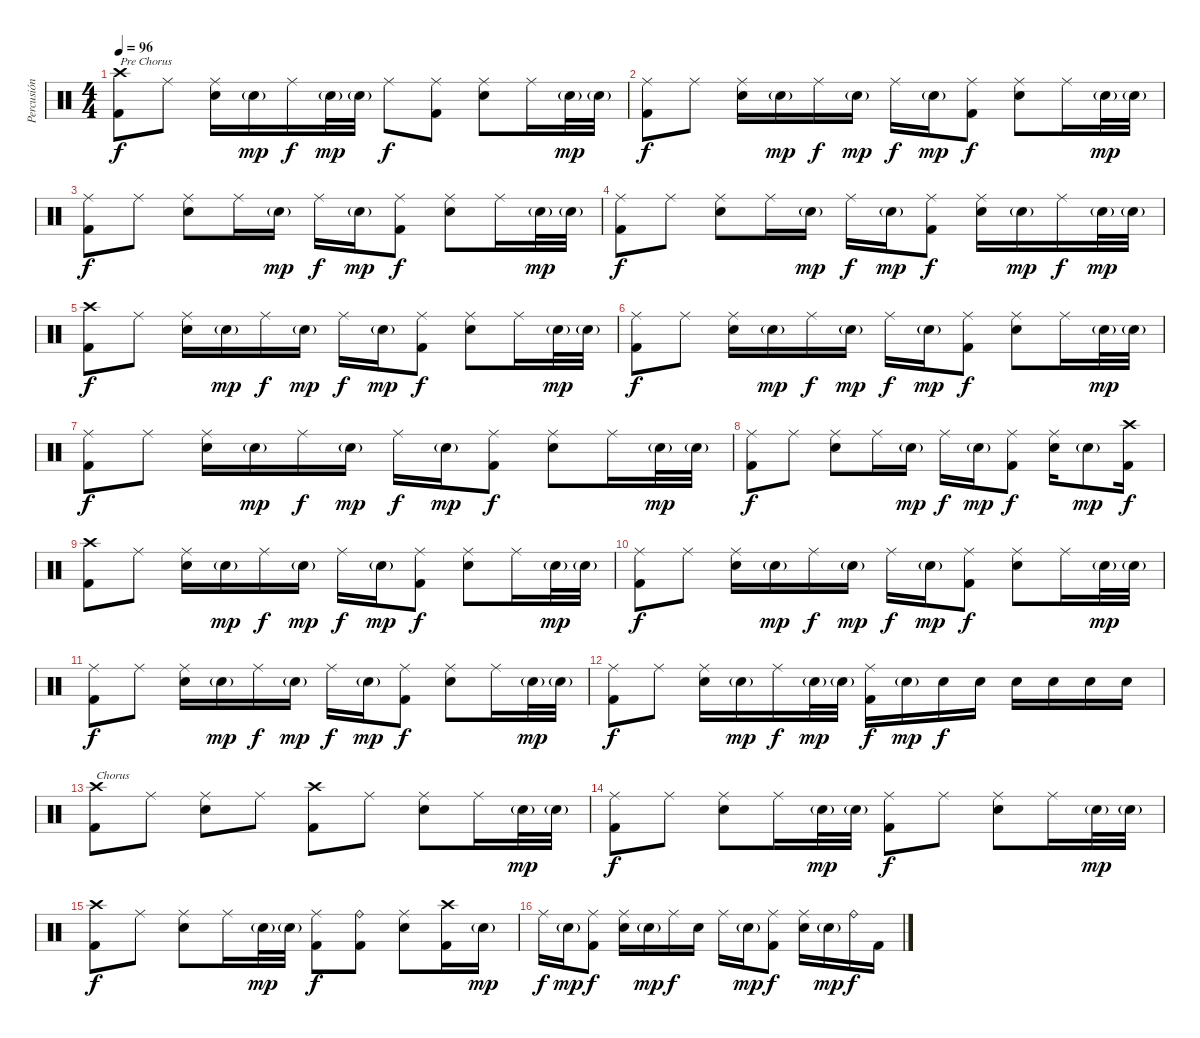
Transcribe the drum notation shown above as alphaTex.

\track ("Percusión" "Percusión") {instrument percussion}
\staff {score}
\articulation defaults
\ts (4 4)
\tempo 96
\clef neutral
\ks c
("Crash high (hit)" "Kick (hit) 2").8{txt "Pre Chorus" dy f} "Ride (middle)".8 ("Ride (middle)" "Snare (hit) 2").16 "Snare (hit) 2"{g}.16{dy mp} "Ride (middle)".16{dy f} "Snare (hit) 2"{g}.32{dy mp} "Snare (hit) 2"{g}.32 "Ride (middle)".8{dy f} ("Ride (middle)" "Kick (hit) 2").8 ("Ride (middle)" "Snare (hit) 2").8 "Ride (middle)".16 "Snare (hit) 2"{g}.32{dy mp} "Snare (hit) 2"{g}.32 |
("Ride (middle)" "Kick (hit) 2").8{dy f} "Ride (middle)".8 ("Ride (middle)" "Snare (hit) 2").16 "Snare (hit) 2"{g}.16{dy mp} "Ride (middle)".16{dy f} "Snare (hit) 2"{g}.16{dy mp} "Ride (middle)".16{dy f} "Snare (hit) 2"{g}.16{dy mp} ("Ride (middle)" "Kick (hit) 2").8{dy f} ("Ride (middle)" "Snare (hit) 2").8 "Ride (middle)".16 "Snare (hit) 2"{g}.32{dy mp} "Snare (hit) 2"{g}.32 |
("Ride (middle)" "Kick (hit) 2").8{dy f} "Ride (middle)".8 ("Ride (middle)" "Snare (hit) 2").8 "Ride (middle)".16 "Snare (hit) 2"{g}.16{dy mp} "Ride (middle)".16{dy f} "Snare (hit) 2"{g}.16{dy mp} ("Ride (middle)" "Kick (hit) 2").8{dy f} ("Ride (middle)" "Snare (hit) 2").8 "Ride (middle)".16 "Snare (hit) 2"{g}.32{dy mp} "Snare (hit) 2"{g}.32 |
("Ride (middle)" "Kick (hit) 2").8{dy f} "Ride (middle)".8 ("Ride (middle)" "Snare (hit) 2").8 "Ride (middle)".16 "Snare (hit) 2"{g}.16{dy mp} "Ride (middle)".16{dy f} "Snare (hit) 2"{g}.16{dy mp} ("Ride (middle)" "Kick (hit) 2").8{dy f} ("Ride (middle)" "Snare (hit) 2").16 "Snare (hit) 2"{g}.16{dy mp} "Ride (middle)".16{dy f} "Snare (hit) 2"{g}.32{dy mp} "Snare (hit) 2"{g}.32 |
("Crash high (hit)" "Kick (hit) 2").8{dy f} "Ride (middle)".8 ("Ride (middle)" "Snare (hit) 2").16 "Snare (hit) 2"{g}.16{dy mp} "Ride (middle)".16{dy f} "Snare (hit) 2"{g}.16{dy mp} "Ride (middle)".16{dy f} "Snare (hit) 2"{g}.16{dy mp} ("Ride (middle)" "Kick (hit) 2").8{dy f} ("Ride (middle)" "Snare (hit) 2").8 "Ride (middle)".16 "Snare (hit) 2"{g}.32{dy mp} "Snare (hit) 2"{g}.32 |
("Ride (middle)" "Kick (hit) 2").8{dy f} "Ride (middle)".8 ("Ride (middle)" "Snare (hit) 2").16 "Snare (hit) 2"{g}.16{dy mp} "Ride (middle)".16{dy f} "Snare (hit) 2"{g}.16{dy mp} "Ride (middle)".16{dy f} "Snare (hit) 2"{g}.16{dy mp} ("Ride (middle)" "Kick (hit) 2").8{dy f} ("Ride (middle)" "Snare (hit) 2").8 "Ride (middle)".16 "Snare (hit) 2"{g}.32{dy mp} "Snare (hit) 2"{g}.32 |
("Ride (middle)" "Kick (hit) 2").8{dy f} "Ride (middle)".8 ("Ride (middle)" "Snare (hit) 2").16 "Snare (hit) 2"{g}.16{dy mp} "Ride (middle)".16{dy f} "Snare (hit) 2"{g}.16{dy mp} "Ride (middle)".16{dy f} "Snare (hit) 2"{g}.16{dy mp} ("Ride (middle)" "Kick (hit) 2").8{dy f} ("Ride (middle)" "Snare (hit) 2").8 "Ride (middle)".16 "Snare (hit) 2"{g}.32{dy mp} "Snare (hit) 2"{g}.32 |
("Ride (middle)" "Kick (hit) 2").8{dy f} "Ride (middle)".8 ("Ride (middle)" "Snare (hit) 2").8 "Ride (middle)".16 "Snare (hit) 2"{g}.16{dy mp} "Ride (middle)".16{dy f} "Snare (hit) 2"{g}.16{dy mp} ("Ride (middle)" "Kick (hit) 2").8{dy f} ("Ride (middle)" "Snare (hit) 2").16 "Snare (hit) 2"{g}.8{dy mp} ("Crash high (hit)" "Kick (hit) 2").16{dy f} |
("Crash high (hit)" "Kick (hit) 2").8 "Ride (middle)".8 ("Ride (middle)" "Snare (hit) 2").16 "Snare (hit) 2"{g}.16{dy mp} "Ride (middle)".16{dy f} "Snare (hit) 2"{g}.16{dy mp} "Ride (middle)".16{dy f} "Snare (hit) 2"{g}.16{dy mp} ("Ride (middle)" "Kick (hit) 2").8{dy f} ("Ride (middle)" "Snare (hit) 2").8 "Ride (middle)".16 "Snare (hit) 2"{g}.32{dy mp} "Snare (hit) 2"{g}.32 |
("Ride (middle)" "Kick (hit) 2").8{dy f} "Ride (middle)".8 ("Ride (middle)" "Snare (hit) 2").16 "Snare (hit) 2"{g}.16{dy mp} "Ride (middle)".16{dy f} "Snare (hit) 2"{g}.16{dy mp} "Ride (middle)".16{dy f} "Snare (hit) 2"{g}.16{dy mp} ("Ride (middle)" "Kick (hit) 2").8{dy f} ("Ride (middle)" "Snare (hit) 2").8 "Ride (middle)".16 "Snare (hit) 2"{g}.32{dy mp} "Snare (hit) 2"{g}.32 |
("Ride (middle)" "Kick (hit) 2").8{dy f} "Ride (middle)".8 ("Ride (middle)" "Snare (hit) 2").16 "Snare (hit) 2"{g}.16{dy mp} "Ride (middle)".16{dy f} "Snare (hit) 2"{g}.16{dy mp} "Ride (middle)".16{dy f} "Snare (hit) 2"{g}.16{dy mp} ("Ride (middle)" "Kick (hit) 2").8{dy f} ("Ride (middle)" "Snare (hit) 2").8 "Ride (middle)".16 "Snare (hit) 2"{g}.32{dy mp} "Snare (hit) 2"{g}.32 |
("Ride (middle)" "Kick (hit) 2").8{dy f} "Ride (middle)".8 ("Ride (middle)" "Snare (hit) 2").16 "Snare (hit) 2"{g}.16{dy mp} "Ride (middle)".16{dy f} "Snare (hit) 2"{g}.32{dy mp} "Snare (hit) 2"{g}.32 ("Ride (middle)" "Kick (hit) 2").16{dy f} "Snare (hit) 2"{g}.16{dy mp} "Snare (hit) 2".16{dy f} "Snare (hit) 2".16 "Snare (hit) 2".16 "Snare (hit) 2".16 "Snare (hit) 2".16 "Snare (hit) 2".16 |
("Crash high (hit)" "Kick (hit) 2").8{txt "Chorus"} "Ride (middle)".8 ("Ride (middle)" "Snare (hit) 2").8 "Ride (middle)".8 ("Crash high (hit)" "Kick (hit) 2").8 "Ride (middle)".8 ("Ride (middle)" "Snare (hit) 2").8 "Ride (middle)".16 "Snare (hit) 2"{g}.32{dy mp} "Snare (hit) 2"{g}.32 |
("Ride (middle)" "Kick (hit) 2").8{dy f} "Ride (middle)".8 ("Ride (middle)" "Snare (hit) 2").8 "Ride (middle)".16 "Snare (hit) 2"{g}.32{dy mp} "Snare (hit) 2"{g}.32 ("Ride (middle)" "Kick (hit) 2").8{dy f} "Ride (middle)".8 ("Ride (middle)" "Snare (hit) 2").8 "Ride (middle)".16 "Snare (hit) 2"{g}.32{dy mp} "Snare (hit) 2"{g}.32 |
("Crash high (hit)" "Kick (hit) 2").8{dy f} "Ride (middle)".8 ("Ride (middle)" "Snare (hit) 2").8 "Ride (middle)".16 "Snare (hit) 2"{g}.32{dy mp} "Snare (hit) 2"{g}.32 ("Ride (middle)" "Kick (hit) 2").8{dy f} ("Ride (bell)" "Kick (hit) 2").8 ("Ride (middle)" "Snare (hit) 2").8 ("Crash high (hit)" "Kick (hit) 2").16 "Snare (hit) 2"{g}.16{dy mp} |
"Ride (middle)".16{dy f} "Snare (hit) 2"{g}.16{dy mp} ("Ride (middle)" "Kick (hit) 2").8{dy f} ("Ride (middle)" "Snare (hit) 2").16 "Snare (hit) 2"{g}.16{dy mp} "Ride (middle)".16{dy f} "Snare (hit) 2".16 "Ride (middle)".16 "Snare (hit) 2"{g}.16{dy mp} ("Ride (middle)" "Kick (hit) 2").8{dy f} ("Ride (middle)" "Snare (hit) 2").16 "Snare (hit) 2"{g}.16{dy mp} "Ride (bell)".16{dy f} "Kick (hit) 2".16
